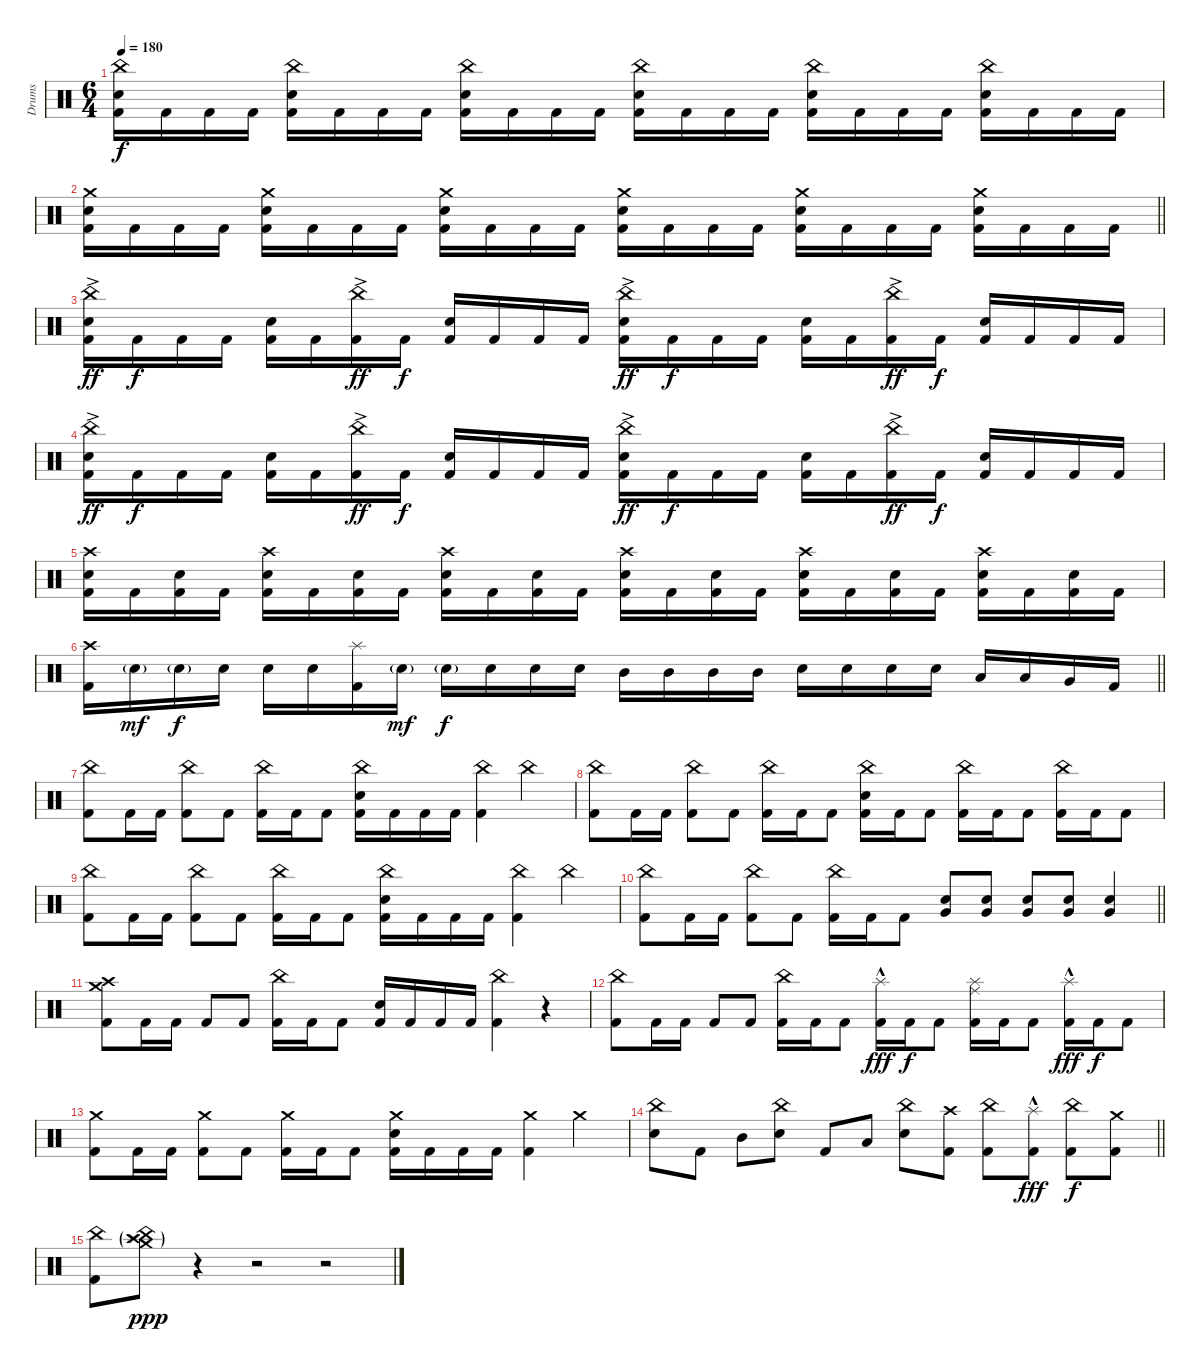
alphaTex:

\track ("Drums" "Drums") {instrument percussion}
\staff {score}
\articulation defaults
\ts (6 4)
\tempo 180
\clef neutral
\ks c
("China (hit)" "Electric Snare (hit)" "Kick (hit) 2").16{dy f} "Kick (hit) 2".16 "Kick (hit) 2".16 "Kick (hit) 2".16 ("China (hit)" "Electric Snare (hit)" "Kick (hit) 2").16 "Kick (hit) 2".16 "Kick (hit) 2".16 "Kick (hit) 2".16 ("China (hit)" "Electric Snare (hit)" "Kick (hit) 2").16 "Kick (hit) 2".16 "Kick (hit) 2".16 "Kick (hit) 2".16 ("China (hit)" "Electric Snare (hit)" "Kick (hit) 2").16 "Kick (hit) 2".16 "Kick (hit) 2".16 "Kick (hit) 2".16 ("China (hit)" "Electric Snare (hit)" "Kick (hit) 2").16 "Kick (hit) 2".16 "Kick (hit) 2".16 "Kick (hit) 2".16 ("China (hit)" "Electric Snare (hit)" "Kick (hit) 2").16 "Kick (hit) 2".16 "Kick (hit) 2".16 "Kick (hit) 2".16 |
\barLineRight lightlight
("Crash medium (hit)" "Electric Snare (hit)" "Kick (hit) 2").16 "Kick (hit) 2".16 "Kick (hit) 2".16 "Kick (hit) 2".16 ("Crash medium (hit)" "Electric Snare (hit)" "Kick (hit) 2").16 "Kick (hit) 2".16 "Kick (hit) 2".16 "Kick (hit) 2".16 ("Crash medium (hit)" "Electric Snare (hit)" "Kick (hit) 2").16 "Kick (hit) 2".16 "Kick (hit) 2".16 "Kick (hit) 2".16 ("Crash medium (hit)" "Electric Snare (hit)" "Kick (hit) 2").16 "Kick (hit) 2".16 "Kick (hit) 2".16 "Kick (hit) 2".16 ("Crash medium (hit)" "Electric Snare (hit)" "Kick (hit) 2").16 "Kick (hit) 2".16 "Kick (hit) 2".16 "Kick (hit) 2".16 ("Crash medium (hit)" "Electric Snare (hit)" "Kick (hit) 2").16 "Kick (hit) 2".16 "Kick (hit) 2".16 "Kick (hit) 2".16 |
("China (hit)"{ac} "Electric Snare (hit)" "Kick (hit) 2").16{dy ff} "Kick (hit) 2".16{dy f} "Kick (hit) 2".16 "Kick (hit) 2".16 ("Electric Snare (hit)" "Kick (hit) 2").16 "Kick (hit) 2".16 ("China (hit)"{ac} "Kick (hit) 2").16{dy ff} "Kick (hit) 2".16{dy f} ("Electric Snare (hit)" "Kick (hit) 2").16 "Kick (hit) 2".16 "Kick (hit) 2".16 "Kick (hit) 2".16 ("China (hit)"{ac} "Electric Snare (hit)" "Kick (hit) 2").16{dy ff} "Kick (hit) 2".16{dy f} "Kick (hit) 2".16 "Kick (hit) 2".16 ("Electric Snare (hit)" "Kick (hit) 2").16 "Kick (hit) 2".16 ("China (hit)"{ac} "Kick (hit) 2").16{dy ff} "Kick (hit) 2".16{dy f} ("Electric Snare (hit)" "Kick (hit) 2").16 "Kick (hit) 2".16 "Kick (hit) 2".16 "Kick (hit) 2".16 |
("China (hit)"{ac} "Electric Snare (hit)" "Kick (hit) 2").16{dy ff} "Kick (hit) 2".16{dy f} "Kick (hit) 2".16 "Kick (hit) 2".16 ("Electric Snare (hit)" "Kick (hit) 2").16 "Kick (hit) 2".16 ("China (hit)"{ac} "Kick (hit) 2").16{dy ff} "Kick (hit) 2".16{dy f} ("Electric Snare (hit)" "Kick (hit) 2").16 "Kick (hit) 2".16 "Kick (hit) 2".16 "Kick (hit) 2".16 ("China (hit)"{ac} "Electric Snare (hit)" "Kick (hit) 2").16{dy ff} "Kick (hit) 2".16{dy f} "Kick (hit) 2".16 "Kick (hit) 2".16 ("Electric Snare (hit)" "Kick (hit) 2").16 "Kick (hit) 2".16 ("China (hit)"{ac} "Kick (hit) 2").16{dy ff} "Kick (hit) 2".16{dy f} ("Electric Snare (hit)" "Kick (hit) 2").16 "Kick (hit) 2".16 "Kick (hit) 2".16 "Kick (hit) 2".16 |
("Crash high (hit)" "Electric Snare (hit)" "Kick (hit) 2").16 "Kick (hit) 2".16 ("Electric Snare (hit)" "Kick (hit) 2").16 "Kick (hit) 2".16 ("Crash high (hit)" "Electric Snare (hit)" "Kick (hit) 2").16 "Kick (hit) 2".16 ("Electric Snare (hit)" "Kick (hit) 2").16 "Kick (hit) 2".16 ("Crash high (hit)" "Electric Snare (hit)" "Kick (hit) 2").16 "Kick (hit) 2".16 ("Electric Snare (hit)" "Kick (hit) 2").16 "Kick (hit) 2".16 ("Crash high (hit)" "Electric Snare (hit)" "Kick (hit) 2").16 "Kick (hit) 2".16 ("Electric Snare (hit)" "Kick (hit) 2").16 "Kick (hit) 2".16 ("Crash high (hit)" "Electric Snare (hit)" "Kick (hit) 2").16 "Kick (hit) 2".16 ("Electric Snare (hit)" "Kick (hit) 2").16 "Kick (hit) 2".16 ("Crash high (hit)" "Electric Snare (hit)" "Kick (hit) 2").16 "Kick (hit) 2".16 ("Electric Snare (hit)" "Kick (hit) 2").16 "Kick (hit) 2".16 |
\barLineRight lightlight
("Crash high (hit)" "Kick (hit) 2").16 "Electric Snare (hit)"{g}.16{dy mf} "Electric Snare (hit)"{g}.16{dy f} "Electric Snare (hit)".16 "Electric Snare (hit)".16 "Electric Snare (hit)".16 ("Splash (hit)" "Kick (hit) 2").16 "Electric Snare (hit)"{g}.16{dy mf} "Electric Snare (hit)"{g}.16{dy f} "Electric Snare (hit)".16 "Electric Snare (hit)".16 "Electric Snare (hit)".16 "Mid Tom (hit)".16 "Mid Tom (hit)".16 "Mid Tom (hit)".16 "Mid Tom (hit)".16 "Electric Snare (hit)".16 "Electric Snare (hit)".16 "Electric Snare (hit)".16 "Electric Snare (hit)".16 "Low Tom (hit)".16 "Low Tom (hit)".16 "Very Low Tom (hit)".16 "Kick (hit) 2".16 |
("China (hit)" "Kick (hit) 2").8 "Kick (hit) 2".16 "Kick (hit) 2".16 ("China (hit)" "Kick (hit) 2").8 "Kick (hit) 2".8 ("China (hit)" "Kick (hit) 2").16 "Kick (hit) 2".16 "Kick (hit) 2".8 ("China (hit)" "Electric Snare (hit)" "Kick (hit) 2").16 "Kick (hit) 2".16 "Kick (hit) 2".16 "Kick (hit) 2".16 ("China (hit)" "Kick (hit) 2").4 "China (hit)".4 |
("China (hit)" "Kick (hit) 2").8 "Kick (hit) 2".16 "Kick (hit) 2".16 ("China (hit)" "Kick (hit) 2").8 "Kick (hit) 2".8 ("China (hit)" "Kick (hit) 2").16 "Kick (hit) 2".16 "Kick (hit) 2".8 ("China (hit)" "Electric Snare (hit)" "Kick (hit) 2").16 "Kick (hit) 2".16 "Kick (hit) 2".8 ("China (hit)" "Kick (hit) 2").16 "Kick (hit) 2".16 "Kick (hit) 2".8 ("China (hit)" "Kick (hit) 2").16 "Kick (hit) 2".16 "Kick (hit) 2".8 |
("China (hit)" "Kick (hit) 2").8 "Kick (hit) 2".16 "Kick (hit) 2".16 ("China (hit)" "Kick (hit) 2").8 "Kick (hit) 2".8 ("China (hit)" "Kick (hit) 2").16 "Kick (hit) 2".16 "Kick (hit) 2".8 ("China (hit)" "Electric Snare (hit)" "Kick (hit) 2").16 "Kick (hit) 2".16 "Kick (hit) 2".16 "Kick (hit) 2".16 ("China (hit)" "Kick (hit) 2").4 "China (hit)".4 |
\barLineRight lightlight
("China (hit)" "Kick (hit) 2").8 "Kick (hit) 2".16 "Kick (hit) 2".16 ("China (hit)" "Kick (hit) 2").8 "Kick (hit) 2".8 ("China (hit)" "Kick (hit) 2").16 "Kick (hit) 2".16 "Kick (hit) 2".8 ("Electric Snare (hit)" "Very Low Tom (hit)").8 ("Electric Snare (hit)" "Very Low Tom (hit)").8 ("Electric Snare (hit)" "Very Low Tom (hit)").8 ("Electric Snare (hit)" "Very Low Tom (hit)").8 ("Electric Snare (hit)" "Very Low Tom (hit)").4 |
("Crash high (hit)" "Crash medium (hit)" "Kick (hit) 2").8 "Kick (hit) 2".16 "Kick (hit) 2".16 "Kick (hit) 2".8 "Kick (hit) 2".8 ("China (hit)" "Kick (hit) 2").16 "Kick (hit) 2".16 "Kick (hit) 2".8 ("Electric Snare (hit)" "Kick (hit) 2").16 "Kick (hit) 2".16 "Kick (hit) 2".16 "Kick (hit) 2".16 ("China (hit)" "Kick (hit) 2").4 r.4 |
("China (hit)" "Kick (hit) 2").8 "Kick (hit) 2".16 "Kick (hit) 2".16 "Kick (hit) 2".8 "Kick (hit) 2".8 ("China (hit)" "Kick (hit) 2").16 "Kick (hit) 2".16 "Kick (hit) 2".8 ("Splash (hit)"{hac} "Kick (hit) 2").16{dy fff} "Kick (hit) 2".16{dy f} "Kick (hit) 2".8 ("Splash (hit)" "Ride (middle)" "Kick (hit) 2").16 "Kick (hit) 2".16 "Kick (hit) 2".8 ("Splash (hit)"{hac} "Kick (hit) 2").16{dy fff} "Kick (hit) 2".16{dy f} "Kick (hit) 2".8 |
("Crash medium (hit)" "Kick (hit) 2").8 "Kick (hit) 2".16 "Kick (hit) 2".16 ("Crash medium (hit)" "Kick (hit) 2").8 "Kick (hit) 2".8 ("Crash medium (hit)" "Kick (hit) 2").16 "Kick (hit) 2".16 "Kick (hit) 2".8 ("Crash medium (hit)" "Electric Snare (hit)" "Kick (hit) 2").16 "Kick (hit) 2".16 "Kick (hit) 2".16 "Kick (hit) 2".16 ("Crash medium (hit)" "Kick (hit) 2").4 "Crash medium (hit)".4 |
\barLineRight lightlight
("China (hit)" "Electric Snare (hit)").8 "Kick (hit) 2".8 "Mid Tom (hit)".8 ("China (hit)" "Electric Snare (hit)").8 "Kick (hit) 2".8 "Low Tom (hit)".8 ("China (hit)" "Electric Snare (hit)").8 ("Crash high (hit)" "Kick (hit) 2").8 ("China (hit)" "Kick (hit) 2").8 ("Splash (hit)"{hac} "Kick (hit) 2").8{dy fff} ("China (hit)" "Kick (hit) 2").8{dy f} ("Crash medium (hit)" "Kick (hit) 2").8 |
("China (hit)" "Kick (hit) 2").8 ("China (hit)"{g} "Crash medium (hit)"{g} "Splash (hit)"{g} "Crash high (hit)"{g}).8{dy ppp} r.4 r.2 r.2
